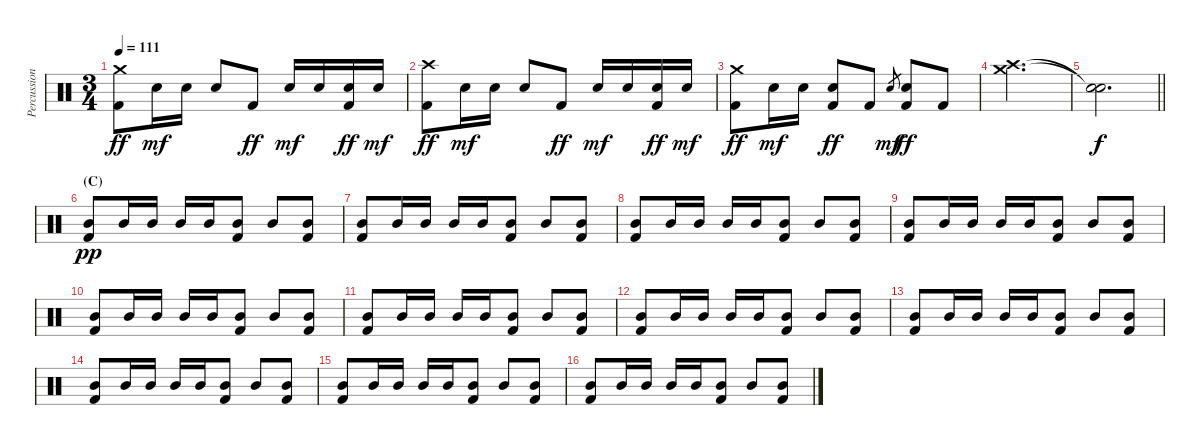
\track ("Percussion" "Percussion") {instrument percussion}
\staff {score}
\articulation defaults
\ts (3 4)
\tempo 111
\clef neutral
\ks c
("Crash medium (hit)" "Kick (hit) 2").8{dy ff} "Snare (hit) 2".16{dy mf} "Snare (hit) 2".16 "Snare (hit) 2".8 "Kick (hit) 2".8{dy ff} "Snare (hit) 2".16{dy mf} "Snare (hit) 2".16 ("Snare (hit) 2" "Kick (hit) 2").16{dy ff} "Snare (hit) 2".16{dy mf} |
("Crash high (hit)" "Kick (hit) 2").8{dy ff} "Snare (hit) 2".16{dy mf} "Snare (hit) 2".16 "Snare (hit) 2".8 "Kick (hit) 2".8{dy ff} "Snare (hit) 2".16{dy mf} "Snare (hit) 2".16 ("Snare (hit) 2" "Kick (hit) 2").16{dy ff} "Snare (hit) 2".16{dy mf} |
("Crash medium (hit)" "Kick (hit) 2").8{dy ff} "Snare (hit) 2".16{dy mf} "Snare (hit) 2".16 ("Snare (hit) 2" "Kick (hit) 2").8{dy ff} "Kick (hit) 2".8 "Snare (hit) 2".8{gr dy mf} ("Snare (hit) 2" "Kick (hit) 2").8{dy ff} "Kick (hit) 2".8 |
("Crash medium (hit)" "Crash high (hit)").2{d} |
\barLineRight lightlight
("Snare (hit)"{t} "Snare (hit)"{t}).2{d dy f} |
\section ("" "(C)")
("Mid Tom (hit)" "Kick (hit) 2").8{dy pp volume 4} "Mid Tom (hit)".16{volume 8} "Mid Tom (hit)".16 "Mid Tom (hit)".16 "Mid Tom (hit)".16 ("Mid Tom (hit)" "Kick (hit) 2").8 "Mid Tom (hit)".8 ("Mid Tom (hit)" "Kick (hit) 2").8 |
("Mid Tom (hit)" "Kick (hit) 2").8 "Mid Tom (hit)".16 "Mid Tom (hit)".16 "Mid Tom (hit)".16 "Mid Tom (hit)".16 ("Mid Tom (hit)" "Kick (hit) 2").8 "Mid Tom (hit)".8 ("Mid Tom (hit)" "Kick (hit) 2").8 |
("Mid Tom (hit)" "Kick (hit) 2").8 "Mid Tom (hit)".16 "Mid Tom (hit)".16 "Mid Tom (hit)".16 "Mid Tom (hit)".16 ("Mid Tom (hit)" "Kick (hit) 2").8 "Mid Tom (hit)".8 ("Mid Tom (hit)" "Kick (hit) 2").8 |
("Mid Tom (hit)" "Kick (hit) 2").8 "Mid Tom (hit)".16 "Mid Tom (hit)".16 "Mid Tom (hit)".16 "Mid Tom (hit)".16 ("Mid Tom (hit)" "Kick (hit) 2").8 "Mid Tom (hit)".8 ("Mid Tom (hit)" "Kick (hit) 2").8 |
("Mid Tom (hit)" "Kick (hit) 2").8 "Mid Tom (hit)".16 "Mid Tom (hit)".16 "Mid Tom (hit)".16 "Mid Tom (hit)".16 ("Mid Tom (hit)" "Kick (hit) 2").8 "Mid Tom (hit)".8 ("Mid Tom (hit)" "Kick (hit) 2").8 |
("Mid Tom (hit)" "Kick (hit) 2").8 "Mid Tom (hit)".16 "Mid Tom (hit)".16 "Mid Tom (hit)".16 "Mid Tom (hit)".16 ("Mid Tom (hit)" "Kick (hit) 2").8 "Mid Tom (hit)".8{volume 10} ("Mid Tom (hit)" "Kick (hit) 2").8 |
("Mid Tom (hit)" "Kick (hit) 2").8 "Mid Tom (hit)".16 "Mid Tom (hit)".16 "Mid Tom (hit)".16 "Mid Tom (hit)".16 ("Mid Tom (hit)" "Kick (hit) 2").8 "Mid Tom (hit)".8 ("Mid Tom (hit)" "Kick (hit) 2").8 |
("Mid Tom (hit)" "Kick (hit) 2").8 "Mid Tom (hit)".16 "Mid Tom (hit)".16 "Mid Tom (hit)".16 "Mid Tom (hit)".16 ("Mid Tom (hit)" "Kick (hit) 2").8 "Mid Tom (hit)".8 ("Mid Tom (hit)" "Kick (hit) 2").8 |
("Mid Tom (hit)" "Kick (hit) 2").8 "Mid Tom (hit)".16 "Mid Tom (hit)".16 "Mid Tom (hit)".16 "Mid Tom (hit)".16 ("Mid Tom (hit)" "Kick (hit) 2").8 "Mid Tom (hit)".8 ("Mid Tom (hit)" "Kick (hit) 2").8 |
("Mid Tom (hit)" "Kick (hit) 2").8 "Mid Tom (hit)".16 "Mid Tom (hit)".16 "Mid Tom (hit)".16 "Mid Tom (hit)".16 ("Mid Tom (hit)" "Kick (hit) 2").8 "Mid Tom (hit)".8 ("Mid Tom (hit)" "Kick (hit) 2").8 |
("Mid Tom (hit)" "Kick (hit) 2").8 "Mid Tom (hit)".16 "Mid Tom (hit)".16 "Mid Tom (hit)".16 "Mid Tom (hit)".16 ("Mid Tom (hit)" "Kick (hit) 2").8 "Mid Tom (hit)".8 ("Mid Tom (hit)" "Kick (hit) 2").8
